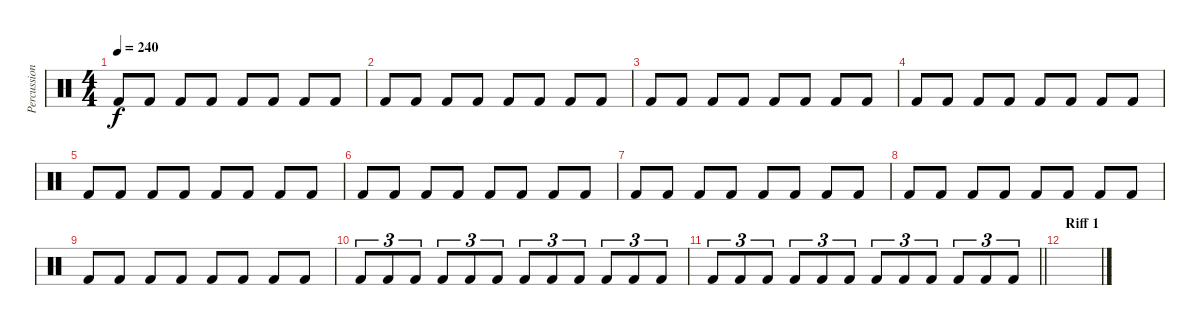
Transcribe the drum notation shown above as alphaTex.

\track ("Percussion" "Percussion") {instrument percussion}
\staff {score}
\articulation defaults
\ts (4 4)
\tempo 240
\clef neutral
\ks c "Kick (hit) 2".8{dy f} "Kick (hit) 2".8 "Kick (hit) 2".8 "Kick (hit) 2".8 "Kick (hit) 2".8 "Kick (hit) 2".8 "Kick (hit) 2".8 "Kick (hit) 2".8
|
"Kick (hit) 2".8 "Kick (hit) 2".8 "Kick (hit) 2".8 "Kick (hit) 2".8 "Kick (hit) 2".8 "Kick (hit) 2".8 "Kick (hit) 2".8 "Kick (hit) 2".8 |
"Kick (hit) 2".8 "Kick (hit) 2".8 "Kick (hit) 2".8 "Kick (hit) 2".8 "Kick (hit) 2".8 "Kick (hit) 2".8 "Kick (hit) 2".8 "Kick (hit) 2".8 |
"Kick (hit) 2".8 "Kick (hit) 2".8 "Kick (hit) 2".8 "Kick (hit) 2".8 "Kick (hit) 2".8 "Kick (hit) 2".8 "Kick (hit) 2".8 "Kick (hit) 2".8 |
"Kick (hit) 2".8 "Kick (hit) 2".8 "Kick (hit) 2".8 "Kick (hit) 2".8 "Kick (hit) 2".8 "Kick (hit) 2".8 "Kick (hit) 2".8 "Kick (hit) 2".8 |
"Kick (hit) 2".8 "Kick (hit) 2".8 "Kick (hit) 2".8 "Kick (hit) 2".8 "Kick (hit) 2".8 "Kick (hit) 2".8 "Kick (hit) 2".8 "Kick (hit) 2".8 |
"Kick (hit) 2".8 "Kick (hit) 2".8 "Kick (hit) 2".8 "Kick (hit) 2".8 "Kick (hit) 2".8 "Kick (hit) 2".8 "Kick (hit) 2".8 "Kick (hit) 2".8 |
"Kick (hit) 2".8 "Kick (hit) 2".8 "Kick (hit) 2".8 "Kick (hit) 2".8 "Kick (hit) 2".8 "Kick (hit) 2".8 "Kick (hit) 2".8 "Kick (hit) 2".8 |
"Kick (hit) 2".8 "Kick (hit) 2".8 "Kick (hit) 2".8 "Kick (hit) 2".8 "Kick (hit) 2".8 "Kick (hit) 2".8 "Kick (hit) 2".8 "Kick (hit) 2".8 |
"Kick (hit) 2".8{tu (3 2)} "Kick (hit) 2".8{tu (3 2)} "Kick (hit) 2".8{tu (3 2)} "Kick (hit) 2".8{tu (3 2)} "Kick (hit) 2".8{tu (3 2)} "Kick (hit) 2".8{tu (3 2)} "Kick (hit) 2".8{tu (3 2)} "Kick (hit) 2".8{tu (3 2)} "Kick (hit) 2".8{tu (3 2)} "Kick (hit) 2".8{tu (3 2)} "Kick (hit) 2".8{tu (3 2)} "Kick (hit) 2".8{tu (3 2)} |
\barLineRight lightlight "Kick (hit) 2".8{tu (3 2)} "Kick (hit) 2".8{tu (3 2)} "Kick (hit) 2".8{tu (3 2)} "Kick (hit) 2".8{tu (3 2)} "Kick (hit) 2".8{tu (3 2)} "Kick (hit) 2".8{tu (3 2)} "Kick (hit) 2".8{tu (3 2)} "Kick (hit) 2".8{tu (3 2)} "Kick (hit) 2".8{tu (3 2)} "Kick (hit) 2".8{tu (3 2)} "Kick (hit) 2".8{tu (3 2)} "Kick (hit) 2".8{tu (3 2)}
|
\section ("" "Riff 1")
